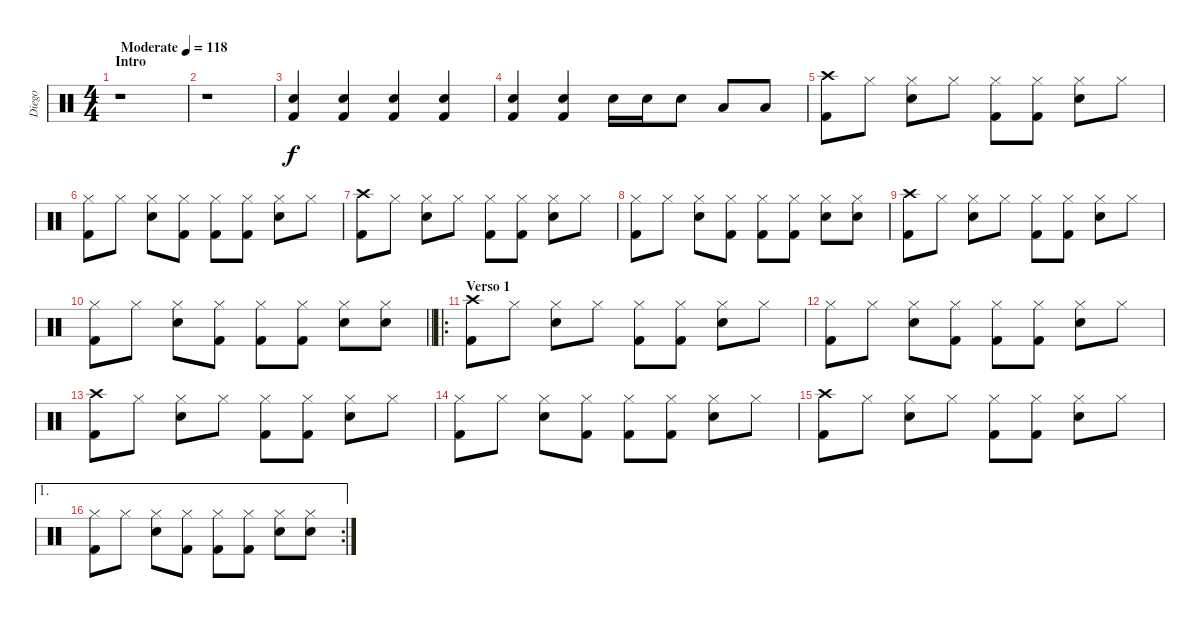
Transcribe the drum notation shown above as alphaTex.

\track ("Diego" "Diego") {instrument percussion}
\staff {score}
\articulation defaults
\ts (4 4)
\section ("" "Intro")
\tempo (118 "Moderate")
\clef neutral
\ks c
r.1{dy f} |
r.1 |
("Kick (hit) 2" "Snare (hit) 2").4 ("Kick (hit) 2" "Snare (hit) 2").4 ("Kick (hit) 2" "Snare (hit) 2").4 ("Kick (hit) 2" "Snare (hit) 2").4 |
("Kick (hit) 2" "Snare (hit) 2").4 ("Kick (hit) 2" "Snare (hit) 2").4 "Snare (hit) 2".16 "Snare (hit) 2".16 "Snare (hit) 2".8 "Low Floor Tom (hit)".8 "Low Floor Tom (hit)".8 |
("Crash high (hit)" "Kick (hit) 2").8 "Hi-Hat (closed)".8 ("Hi-Hat (closed)" "Snare (hit) 2").8 "Hi-Hat (closed)".8 ("Hi-Hat (closed)" "Kick (hit) 2").8 ("Hi-Hat (closed)" "Kick (hit) 2").8 ("Hi-Hat (closed)" "Snare (hit) 2").8 "Hi-Hat (closed)".8 |
("Hi-Hat (closed)" "Kick (hit) 2").8 "Hi-Hat (closed)".8 ("Hi-Hat (closed)" "Snare (hit) 2").8 ("Hi-Hat (closed)" "Kick (hit) 2").8 ("Hi-Hat (closed)" "Kick (hit) 2").8 ("Hi-Hat (closed)" "Kick (hit) 2").8 ("Hi-Hat (closed)" "Snare (hit) 2").8 "Hi-Hat (closed)".8 |
("Crash high (hit)" "Kick (hit) 2").8 "Hi-Hat (closed)".8 ("Hi-Hat (closed)" "Snare (hit) 2").8 "Hi-Hat (closed)".8 ("Hi-Hat (closed)" "Kick (hit) 2").8 ("Hi-Hat (closed)" "Kick (hit) 2").8 ("Hi-Hat (closed)" "Snare (hit) 2").8 "Hi-Hat (closed)".8 |
("Hi-Hat (closed)" "Kick (hit) 2").8 "Hi-Hat (closed)".8 ("Hi-Hat (closed)" "Snare (hit) 2").8 ("Hi-Hat (closed)" "Kick (hit) 2").8 ("Hi-Hat (closed)" "Kick (hit) 2").8 ("Hi-Hat (closed)" "Kick (hit) 2").8 ("Hi-Hat (closed)" "Snare (hit) 2").8 ("Hi-Hat (closed)" "Snare (hit) 2").8 |
("Crash high (hit)" "Kick (hit) 2").8 "Hi-Hat (closed)".8 ("Hi-Hat (closed)" "Snare (hit) 2").8 "Hi-Hat (closed)".8 ("Hi-Hat (closed)" "Kick (hit) 2").8 ("Hi-Hat (closed)" "Kick (hit) 2").8 ("Hi-Hat (closed)" "Snare (hit) 2").8 "Hi-Hat (closed)".8 |
\barLineRight lightlight
("Hi-Hat (closed)" "Kick (hit) 2").8 "Hi-Hat (closed)".8 ("Hi-Hat (closed)" "Snare (hit) 2").8 ("Hi-Hat (closed)" "Kick (hit) 2").8 ("Hi-Hat (closed)" "Kick (hit) 2").8 ("Hi-Hat (closed)" "Kick (hit) 2").8 ("Hi-Hat (closed)" "Snare (hit) 2").8 ("Hi-Hat (closed)" "Snare (hit) 2").8 |
\ro
\section ("" "Verso 1")
("Crash high (hit)" "Kick (hit) 2").8 "Hi-Hat (closed)".8 ("Hi-Hat (closed)" "Snare (hit) 2").8 "Hi-Hat (closed)".8 ("Hi-Hat (closed)" "Kick (hit) 2").8 ("Hi-Hat (closed)" "Kick (hit) 2").8 ("Hi-Hat (closed)" "Snare (hit) 2").8 "Hi-Hat (closed)".8 |
("Hi-Hat (closed)" "Kick (hit) 2").8 "Hi-Hat (closed)".8 ("Hi-Hat (closed)" "Snare (hit) 2").8 ("Hi-Hat (closed)" "Kick (hit) 2").8 ("Hi-Hat (closed)" "Kick (hit) 2").8 ("Hi-Hat (closed)" "Kick (hit) 2").8 ("Hi-Hat (closed)" "Snare (hit) 2").8 "Hi-Hat (closed)".8 |
("Crash high (hit)" "Kick (hit) 2").8 "Hi-Hat (closed)".8 ("Hi-Hat (closed)" "Snare (hit) 2").8 "Hi-Hat (closed)".8 ("Hi-Hat (closed)" "Kick (hit) 2").8 ("Hi-Hat (closed)" "Kick (hit) 2").8 ("Hi-Hat (closed)" "Snare (hit) 2").8 "Hi-Hat (closed)".8 |
("Hi-Hat (closed)" "Kick (hit) 2").8 "Hi-Hat (closed)".8 ("Hi-Hat (closed)" "Snare (hit) 2").8 ("Hi-Hat (closed)" "Kick (hit) 2").8 ("Hi-Hat (closed)" "Kick (hit) 2").8 ("Hi-Hat (closed)" "Kick (hit) 2").8 ("Hi-Hat (closed)" "Snare (hit) 2").8 "Hi-Hat (closed)".8 |
("Crash high (hit)" "Kick (hit) 2").8 "Hi-Hat (closed)".8 ("Hi-Hat (closed)" "Snare (hit) 2").8 "Hi-Hat (closed)".8 ("Hi-Hat (closed)" "Kick (hit) 2").8 ("Hi-Hat (closed)" "Kick (hit) 2").8 ("Hi-Hat (closed)" "Snare (hit) 2").8 "Hi-Hat (closed)".8 |
\ae 1
\rc 2
("Hi-Hat (closed)" "Kick (hit) 2").8 "Hi-Hat (closed)".8 ("Hi-Hat (closed)" "Snare (hit) 2").8 ("Hi-Hat (closed)" "Kick (hit) 2").8 ("Hi-Hat (closed)" "Kick (hit) 2").8 ("Hi-Hat (closed)" "Kick (hit) 2").8 ("Hi-Hat (closed)" "Snare (hit) 2").8 ("Hi-Hat (closed)" "Snare (hit) 2").8
